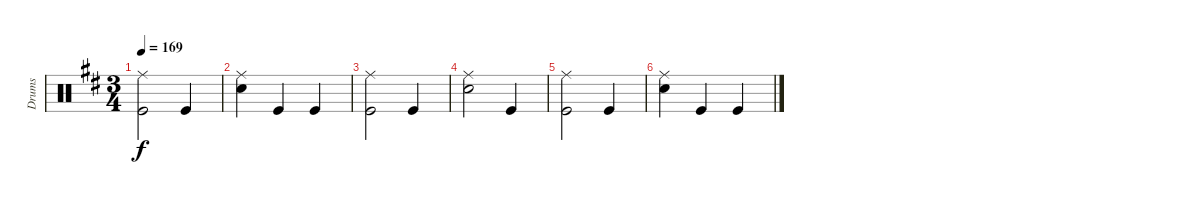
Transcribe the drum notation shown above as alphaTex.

\track ("Drums" "Drums") {instrument percussion}
\staff {score}
\articulation defaults
\ts (3 4)
\tempo 169
\clef neutral
\ks d
("Ride (middle)" "Kick (hit)").2{dy f} "Kick (hit)".4 |
("Ride (middle)" "Snare (hit) 2").4 "Kick (hit)".4 "Kick (hit)".4 |
("Ride (middle)" "Kick (hit)").2 "Kick (hit)".4 |
("Ride (middle)" "Snare (hit) 2").2 "Kick (hit)".4 |
("Ride (middle)" "Kick (hit)").2 "Kick (hit)".4 |
("Ride (middle)" "Snare (hit) 2").4 "Kick (hit)".4 "Kick (hit)".4
